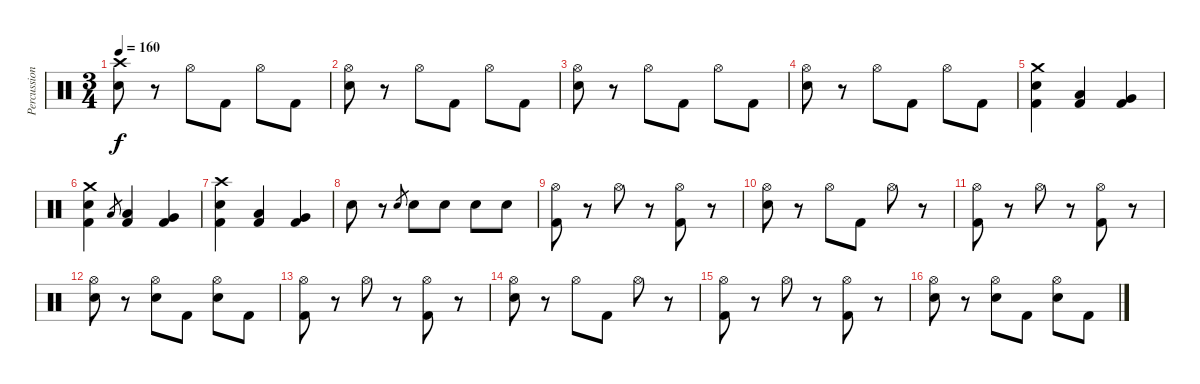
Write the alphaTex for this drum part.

\track ("Percussion" "Percussion") {instrument percussion}
\staff {score}
\articulation defaults
\ts (3 4)
\tempo 160
\clef neutral
\ks c
("Crash high (hit)" "Snare (hit) 2").8{dy f} r.8 "Hi-Hat (open)".8 "Kick (hit) 2".8 "Hi-Hat (open)".8 "Kick (hit) 2".8 |
("Hi-Hat (open)" "Snare (hit) 2").8 r.8 "Hi-Hat (open)".8 "Kick (hit) 2".8 "Hi-Hat (open)".8 "Kick (hit) 2".8 |
("Hi-Hat (open)" "Snare (hit) 2").8 r.8 "Hi-Hat (open)".8 "Kick (hit) 2".8 "Hi-Hat (open)".8 "Kick (hit) 2".8 |
("Hi-Hat (open)" "Snare (hit) 2").8 r.8 "Hi-Hat (open)".8 "Kick (hit) 2".8 "Hi-Hat (open)".8 "Kick (hit) 2".8 |
("Crash medium (hit)" "Snare (hit) 2" "Kick (hit) 2").4 ("Low Tom (hit)" "Kick (hit) 2").4 ("Very Low Tom (hit)" "Kick (hit) 2").4 |
("Crash medium (hit)" "Snare (hit) 2" "Kick (hit) 2").4 "Low Tom (hit)".8{gr} ("Low Tom (hit)" "Kick (hit) 2").4 ("Very Low Tom (hit)" "Kick (hit) 2").4 |
("Crash high (hit)" "Snare (hit) 2" "Kick (hit) 2").4 ("Low Tom (hit)" "Kick (hit) 2").4 ("Very Low Tom (hit)" "Kick (hit) 2").4 |
"Snare (hit) 2".8 r.8 "Snare (hit) 2".8{gr} "Snare (hit) 2".8 "Snare (hit) 2".8 "Snare (hit) 2".8 "Snare (hit) 2".8 |
("Hi-Hat (open)" "Kick (hit) 2").8 r.8 "Hi-Hat (open)".8 r.8 ("Hi-Hat (open)" "Kick (hit) 2").8 r.8 |
("Hi-Hat (open)" "Snare (hit) 2").8 r.8 "Hi-Hat (open)".8 "Kick (hit) 2".8 "Hi-Hat (open)".8 r.8 |
("Hi-Hat (open)" "Kick (hit) 2").8 r.8 "Hi-Hat (open)".8 r.8 ("Hi-Hat (open)" "Kick (hit) 2").8 r.8 |
("Hi-Hat (open)" "Snare (hit) 2").8 r.8 ("Hi-Hat (open)" "Snare (hit) 2").8 "Kick (hit) 2".8 ("Hi-Hat (open)" "Snare (hit) 2").8 "Kick (hit) 2".8 |
("Hi-Hat (open)" "Kick (hit) 2").8 r.8 "Hi-Hat (open)".8 r.8 ("Hi-Hat (open)" "Kick (hit) 2").8 r.8 |
("Hi-Hat (open)" "Snare (hit) 2").8 r.8 "Hi-Hat (open)".8 "Kick (hit) 2".8 "Hi-Hat (open)".8 r.8 |
("Hi-Hat (open)" "Kick (hit) 2").8 r.8 "Hi-Hat (open)".8 r.8 ("Hi-Hat (open)" "Kick (hit) 2").8 r.8 |
("Hi-Hat (open)" "Snare (hit) 2").8 r.8 ("Hi-Hat (open)" "Snare (hit) 2").8 "Kick (hit) 2".8 ("Hi-Hat (open)" "Snare (hit) 2").8 "Kick (hit) 2".8
